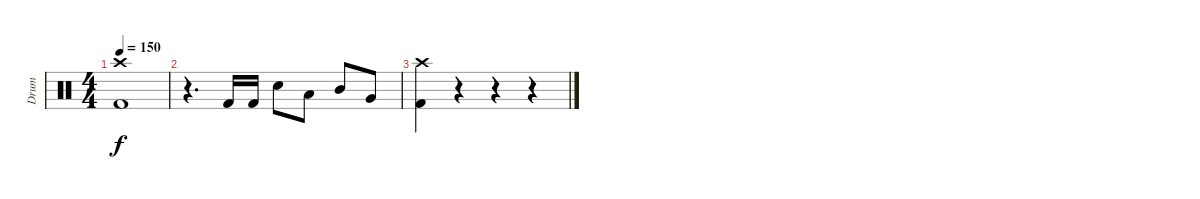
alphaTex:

\track ("Drum" "Drum") {instrument percussion}
\staff {score}
\articulation defaults
\ts (4 4)
\tempo 150
\clef neutral
\ks c
("Crash high (hit)" "Kick (hit) 2").1{dy f} |
r.4{d} "Kick (hit) 2".16 "Kick (hit) 2".16 "Electric Snare (hit)".8 "Low Tom (hit)".8 "Mid Tom (hit)".8 "Very Low Tom (hit)".8 |
("Crash high (hit)" "Kick (hit) 2").4 r.4 r.4 r.4
